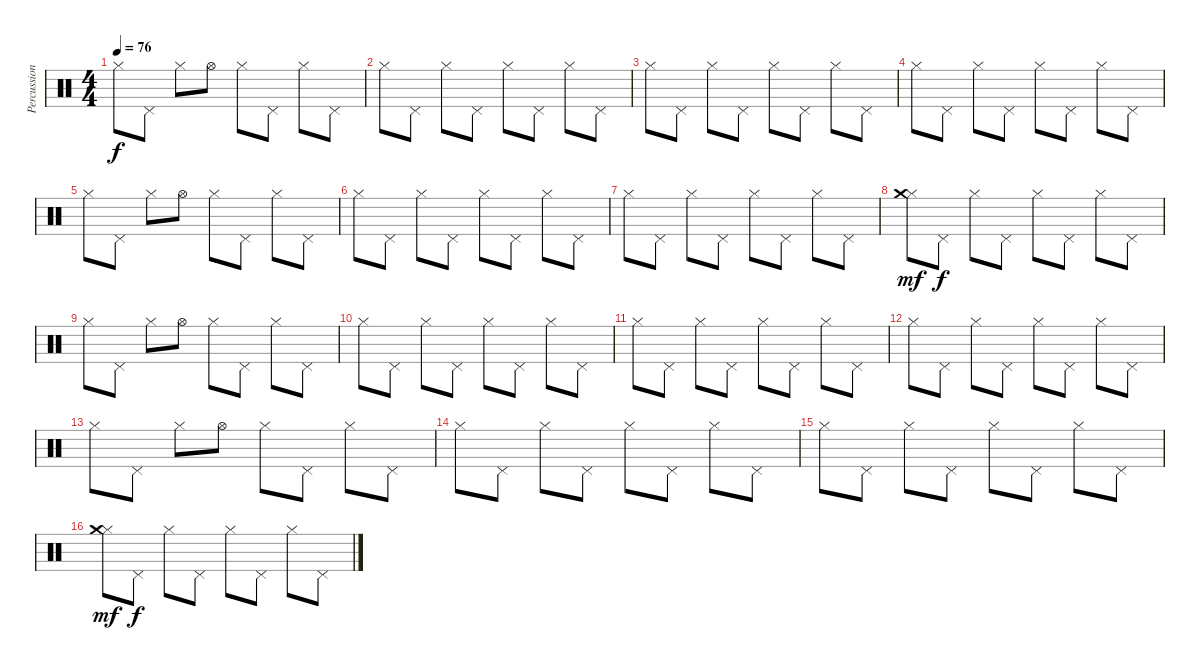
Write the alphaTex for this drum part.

\track ("Percussion" "Percussion") {instrument percussion}
\staff {score}
\articulation defaults
\ts (4 4)
\tempo 76
\clef neutral
\ks c "Hi-Hat (closed)".8{dy f} "Pedal Hi-Hat (hit)".8 "Hi-Hat (closed)".8 "Hi-Hat (open)".8 "Hi-Hat (closed)".8 "Pedal Hi-Hat (hit)".8 "Hi-Hat (closed)".8 "Pedal Hi-Hat (hit)".8
|
"Hi-Hat (closed)".8 "Pedal Hi-Hat (hit)".8 "Hi-Hat (closed)".8 "Pedal Hi-Hat (hit)".8 "Hi-Hat (closed)".8 "Pedal Hi-Hat (hit)".8 "Hi-Hat (closed)".8 "Pedal Hi-Hat (hit)".8 |
"Hi-Hat (closed)".8 "Pedal Hi-Hat (hit)".8 "Hi-Hat (closed)".8 "Pedal Hi-Hat (hit)".8 "Hi-Hat (closed)".8 "Pedal Hi-Hat (hit)".8 "Hi-Hat (closed)".8 "Pedal Hi-Hat (hit)".8 |
"Hi-Hat (closed)".8 "Pedal Hi-Hat (hit)".8 "Hi-Hat (closed)".8 "Pedal Hi-Hat (hit)".8 "Hi-Hat (closed)".8 "Pedal Hi-Hat (hit)".8 "Hi-Hat (closed)".8 "Pedal Hi-Hat (hit)".8 |
"Hi-Hat (closed)".8 "Pedal Hi-Hat (hit)".8 "Hi-Hat (closed)".8 "Hi-Hat (open)".8 "Hi-Hat (closed)".8 "Pedal Hi-Hat (hit)".8 "Hi-Hat (closed)".8 "Pedal Hi-Hat (hit)".8 |
"Hi-Hat (closed)".8 "Pedal Hi-Hat (hit)".8 "Hi-Hat (closed)".8 "Pedal Hi-Hat (hit)".8 "Hi-Hat (closed)".8 "Pedal Hi-Hat (hit)".8 "Hi-Hat (closed)".8 "Pedal Hi-Hat (hit)".8 |
"Hi-Hat (closed)".8 "Pedal Hi-Hat (hit)".8 "Hi-Hat (closed)".8 "Pedal Hi-Hat (hit)".8 "Hi-Hat (closed)".8 "Pedal Hi-Hat (hit)".8 "Hi-Hat (closed)".8 "Pedal Hi-Hat (hit)".8 |
("Hi-Hat (closed)" "Crash medium (hit)").8{dy mf} "Pedal Hi-Hat (hit)".8{dy f} "Hi-Hat (closed)".8 "Pedal Hi-Hat (hit)".8 "Hi-Hat (closed)".8 "Pedal Hi-Hat (hit)".8 "Hi-Hat (closed)".8 "Pedal Hi-Hat (hit)".8 |
"Hi-Hat (closed)".8 "Pedal Hi-Hat (hit)".8 "Hi-Hat (closed)".8 "Hi-Hat (open)".8 "Hi-Hat (closed)".8 "Pedal Hi-Hat (hit)".8 "Hi-Hat (closed)".8 "Pedal Hi-Hat (hit)".8 |
"Hi-Hat (closed)".8 "Pedal Hi-Hat (hit)".8 "Hi-Hat (closed)".8 "Pedal Hi-Hat (hit)".8 "Hi-Hat (closed)".8 "Pedal Hi-Hat (hit)".8 "Hi-Hat (closed)".8 "Pedal Hi-Hat (hit)".8 |
"Hi-Hat (closed)".8 "Pedal Hi-Hat (hit)".8 "Hi-Hat (closed)".8 "Pedal Hi-Hat (hit)".8 "Hi-Hat (closed)".8 "Pedal Hi-Hat (hit)".8 "Hi-Hat (closed)".8 "Pedal Hi-Hat (hit)".8 |
"Hi-Hat (closed)".8 "Pedal Hi-Hat (hit)".8 "Hi-Hat (closed)".8 "Pedal Hi-Hat (hit)".8 "Hi-Hat (closed)".8 "Pedal Hi-Hat (hit)".8 "Hi-Hat (closed)".8 "Pedal Hi-Hat (hit)".8 |
"Hi-Hat (closed)".8 "Pedal Hi-Hat (hit)".8 "Hi-Hat (closed)".8 "Hi-Hat (open)".8 "Hi-Hat (closed)".8 "Pedal Hi-Hat (hit)".8 "Hi-Hat (closed)".8 "Pedal Hi-Hat (hit)".8 |
"Hi-Hat (closed)".8 "Pedal Hi-Hat (hit)".8 "Hi-Hat (closed)".8 "Pedal Hi-Hat (hit)".8 "Hi-Hat (closed)".8 "Pedal Hi-Hat (hit)".8 "Hi-Hat (closed)".8 "Pedal Hi-Hat (hit)".8 |
"Hi-Hat (closed)".8 "Pedal Hi-Hat (hit)".8 "Hi-Hat (closed)".8 "Pedal Hi-Hat (hit)".8 "Hi-Hat (closed)".8 "Pedal Hi-Hat (hit)".8 "Hi-Hat (closed)".8 "Pedal Hi-Hat (hit)".8 |
("Hi-Hat (closed)" "Crash medium (hit)").8{dy mf} "Pedal Hi-Hat (hit)".8{dy f} "Hi-Hat (closed)".8 "Pedal Hi-Hat (hit)".8 "Hi-Hat (closed)".8 "Pedal Hi-Hat (hit)".8 "Hi-Hat (closed)".8 "Pedal Hi-Hat (hit)".8
